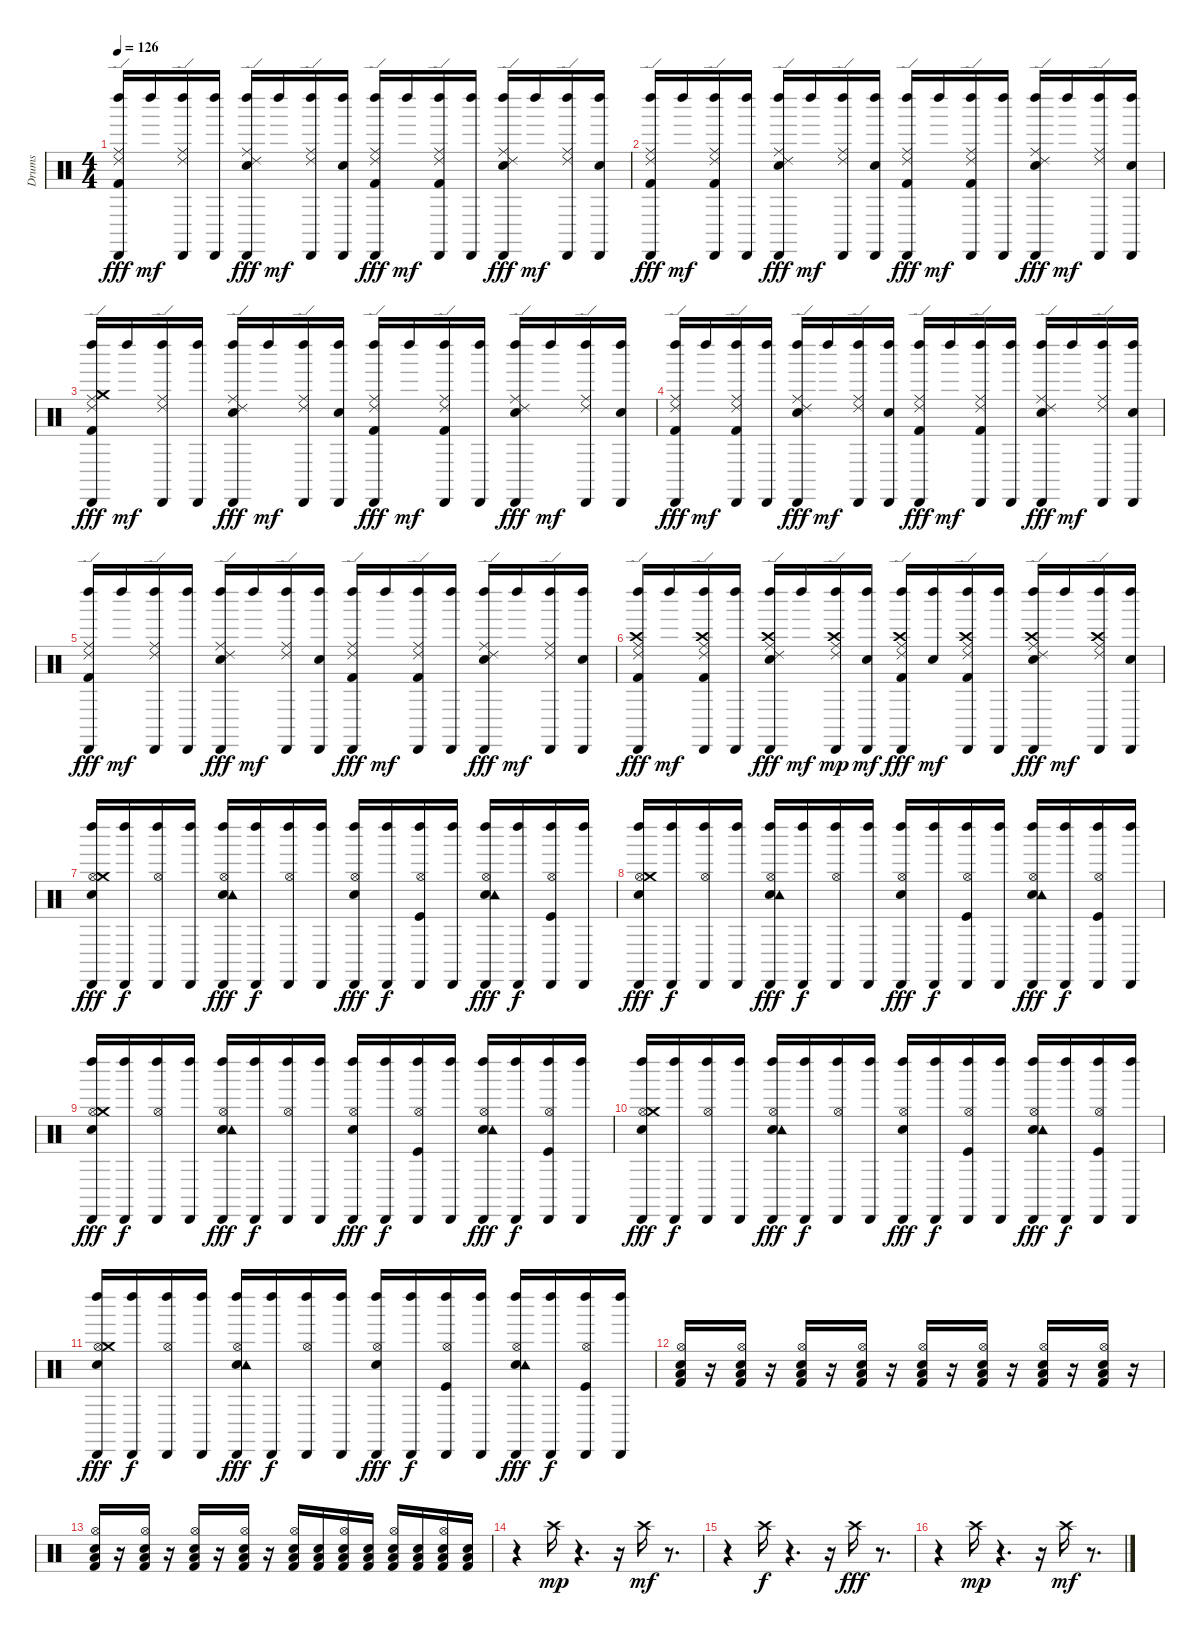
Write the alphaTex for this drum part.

\track ("Drums" "Drums") {instrument percussion}
\staff {score}
\articulation defaults
\ts (4 4)
\tempo 126
\clef neutral
\ks c
("Cabasa (hit)" "Kick (hit) 2" "Left Maraca (hit)" "Ride (middle)" "Ride (edge) 2").16{dy fff} "Left Maraca (hit)".16{dy mf} ("Cabasa (hit)" "Left Maraca (hit)" "Ride (edge) 2" "Ride (middle)").16 ("Cabasa (hit)" "Left Maraca (hit)").16 ("Left Maraca (hit)" "Ride (edge) 2" "Ride (middle)" "Cabasa (hit)" "Electric Snare (hit)").16{dy fff} "Left Maraca (hit)".16{dy mf} ("Ride (edge) 2" "Cabasa (hit)" "Left Maraca (hit)" "Ride (middle)").16 ("Electric Snare (hit)" "Cabasa (hit)" "Left Maraca (hit)").16 ("Kick (hit) 2" "Cabasa (hit)" "Ride (middle)" "Left Maraca (hit)" "Ride (edge) 2").16{dy fff} "Left Maraca (hit)".16{dy mf} ("Cabasa (hit)" "Ride (middle)" "Ride (edge) 2" "Left Maraca (hit)" "Kick (hit) 2").16 ("Left Maraca (hit)" "Cabasa (hit)").16 ("Ride (edge) 2" "Electric Snare (hit)" "Left Maraca (hit)" "Cabasa (hit)" "Ride (middle)").16{dy fff} "Left Maraca (hit)".16{dy mf} ("Left Maraca (hit)" "Cabasa (hit)" "Ride (middle)" "Ride (edge) 2").16 ("Left Maraca (hit)" "Cabasa (hit)" "Electric Snare (hit)").16 |
("Cabasa (hit)" "Kick (hit) 2" "Left Maraca (hit)" "Ride (middle)" "Ride (edge) 2").16{dy fff} "Left Maraca (hit)".16{dy mf} ("Kick (hit) 2" "Cabasa (hit)" "Left Maraca (hit)" "Ride (edge) 2" "Ride (middle)").16 ("Cabasa (hit)" "Left Maraca (hit)").16 ("Left Maraca (hit)" "Ride (edge) 2" "Ride (middle)" "Cabasa (hit)" "Electric Snare (hit)").16{dy fff} "Left Maraca (hit)".16{dy mf} ("Ride (edge) 2" "Cabasa (hit)" "Left Maraca (hit)" "Ride (middle)").16 ("Electric Snare (hit)" "Cabasa (hit)" "Left Maraca (hit)").16 ("Kick (hit) 2" "Cabasa (hit)" "Ride (middle)" "Left Maraca (hit)" "Ride (edge) 2").16{dy fff} "Left Maraca (hit)".16{dy mf} ("Cabasa (hit)" "Ride (middle)" "Ride (edge) 2" "Left Maraca (hit)" "Kick (hit) 2").16 ("Left Maraca (hit)" "Cabasa (hit)").16 ("Ride (edge) 2" "Electric Snare (hit)" "Left Maraca (hit)" "Cabasa (hit)" "Ride (middle)").16{dy fff} "Left Maraca (hit)".16{dy mf} ("Left Maraca (hit)" "Cabasa (hit)" "Ride (middle)" "Ride (edge) 2").16 ("Left Maraca (hit)" "Cabasa (hit)" "Electric Snare (hit)").16 |
("Crash medium (hit)" "Cabasa (hit)" "Kick (hit) 2" "Left Maraca (hit)" "Ride (middle)" "Ride (edge) 2").16{dy fff} "Left Maraca (hit)".16{dy mf} ("Cabasa (hit)" "Left Maraca (hit)" "Ride (edge) 2" "Ride (middle)").16 ("Cabasa (hit)" "Left Maraca (hit)").16 ("Left Maraca (hit)" "Ride (edge) 2" "Ride (middle)" "Cabasa (hit)" "Electric Snare (hit)").16{dy fff} "Left Maraca (hit)".16{dy mf} ("Ride (edge) 2" "Cabasa (hit)" "Left Maraca (hit)" "Ride (middle)").16 ("Electric Snare (hit)" "Cabasa (hit)" "Left Maraca (hit)").16 ("Kick (hit) 2" "Cabasa (hit)" "Ride (middle)" "Left Maraca (hit)" "Ride (edge) 2").16{dy fff} "Left Maraca (hit)".16{dy mf} ("Cabasa (hit)" "Ride (middle)" "Ride (edge) 2" "Left Maraca (hit)" "Kick (hit) 2").16 ("Left Maraca (hit)" "Cabasa (hit)").16 ("Ride (edge) 2" "Electric Snare (hit)" "Left Maraca (hit)" "Cabasa (hit)" "Ride (middle)").16{dy fff} "Left Maraca (hit)".16{dy mf} ("Left Maraca (hit)" "Cabasa (hit)" "Ride (middle)" "Ride (edge) 2").16 ("Left Maraca (hit)" "Cabasa (hit)" "Electric Snare (hit)").16 |
("Cabasa (hit)" "Kick (hit) 2" "Left Maraca (hit)" "Ride (middle)" "Ride (edge) 2").16{dy fff} "Left Maraca (hit)".16{dy mf} ("Kick (hit) 2" "Cabasa (hit)" "Left Maraca (hit)" "Ride (edge) 2" "Ride (middle)").16 ("Cabasa (hit)" "Left Maraca (hit)").16 ("Left Maraca (hit)" "Ride (edge) 2" "Ride (middle)" "Cabasa (hit)" "Electric Snare (hit)").16{dy fff} "Left Maraca (hit)".16{dy mf} ("Ride (edge) 2" "Cabasa (hit)" "Left Maraca (hit)" "Ride (middle)").16 ("Electric Snare (hit)" "Cabasa (hit)" "Left Maraca (hit)").16 ("Kick (hit) 2" "Cabasa (hit)" "Ride (middle)" "Left Maraca (hit)" "Ride (edge) 2").16{dy fff} "Left Maraca (hit)".16{dy mf} ("Cabasa (hit)" "Ride (middle)" "Ride (edge) 2" "Left Maraca (hit)" "Kick (hit) 2").16 ("Left Maraca (hit)" "Cabasa (hit)").16 ("Ride (edge) 2" "Electric Snare (hit)" "Left Maraca (hit)" "Cabasa (hit)" "Ride (middle)").16{dy fff} "Left Maraca (hit)".16{dy mf} ("Left Maraca (hit)" "Cabasa (hit)" "Ride (middle)" "Ride (edge) 2").16 ("Left Maraca (hit)" "Cabasa (hit)" "Electric Snare (hit)").16 |
("Cabasa (hit)" "Kick (hit) 2" "Left Maraca (hit)" "Ride (middle)" "Ride (edge) 2").16{dy fff} "Left Maraca (hit)".16{dy mf} ("Cabasa (hit)" "Left Maraca (hit)" "Ride (edge) 2" "Ride (middle)").16 ("Cabasa (hit)" "Left Maraca (hit)").16 ("Left Maraca (hit)" "Ride (edge) 2" "Ride (middle)" "Cabasa (hit)" "Electric Snare (hit)").16{dy fff} "Left Maraca (hit)".16{dy mf} ("Ride (edge) 2" "Cabasa (hit)" "Left Maraca (hit)" "Ride (middle)").16 ("Electric Snare (hit)" "Cabasa (hit)" "Left Maraca (hit)").16 ("Kick (hit) 2" "Cabasa (hit)" "Ride (middle)" "Left Maraca (hit)" "Ride (edge) 2").16{dy fff} "Left Maraca (hit)".16{dy mf} ("Cabasa (hit)" "Ride (middle)" "Ride (edge) 2" "Left Maraca (hit)" "Kick (hit) 2").16 ("Left Maraca (hit)" "Cabasa (hit)").16 ("Ride (edge) 2" "Electric Snare (hit)" "Left Maraca (hit)" "Cabasa (hit)" "Ride (middle)").16{dy fff} "Left Maraca (hit)".16{dy mf} ("Left Maraca (hit)" "Cabasa (hit)" "Ride (middle)" "Ride (edge) 2").16 ("Left Maraca (hit)" "Cabasa (hit)" "Electric Snare (hit)").16 |
("Crash high (hit)" "Cabasa (hit)" "Kick (hit) 2" "Left Maraca (hit)" "Ride (middle)" "Ride (edge) 2").16{dy fff} "Left Maraca (hit)".16{dy mf} ("Crash high (hit)" "Kick (hit) 2" "Cabasa (hit)" "Left Maraca (hit)" "Ride (edge) 2" "Ride (middle)").16 ("Cabasa (hit)" "Left Maraca (hit)").16 ("Crash high (hit)" "Left Maraca (hit)" "Ride (edge) 2" "Ride (middle)" "Cabasa (hit)" "Electric Snare (hit)").16{dy fff} "Left Maraca (hit)".16{dy mf} ("Ride (edge) 2" "Cabasa (hit)" "Left Maraca (hit)" "Ride (middle)" "Crash high (hit)").16{dy mp} ("Electric Snare (hit)" "Cabasa (hit)" "Left Maraca (hit)").16{dy mf} ("Crash high (hit)" "Kick (hit) 2" "Cabasa (hit)" "Ride (middle)" "Left Maraca (hit)" "Ride (edge) 2").16{dy fff} ("Electric Snare (hit)" "Left Maraca (hit)").16{dy mf} ("Crash high (hit)" "Cabasa (hit)" "Ride (middle)" "Ride (edge) 2" "Left Maraca (hit)" "Kick (hit) 2").16 ("Left Maraca (hit)" "Cabasa (hit)").16 ("Crash high (hit)" "Ride (edge) 2" "Electric Snare (hit)" "Left Maraca (hit)" "Cabasa (hit)" "Ride (middle)").16{dy fff} "Left Maraca (hit)".16{dy mf} ("Crash high (hit)" "Left Maraca (hit)" "Cabasa (hit)" "Ride (middle)" "Ride (edge) 2").16 ("Left Maraca (hit)" "Cabasa (hit)" "Electric Snare (hit)").16 |
("Electric Snare (hit)" "Left Maraca (hit)" "Hi-Hat (open)" "Crash medium (hit)" "Cabasa (hit)").16{dy fff} ("Cabasa (hit)" "Left Maraca (hit)").16{dy f} ("Left Maraca (hit)" "Hi-Hat (open)" "Cabasa (hit)").16 ("Left Maraca (hit)" "Cabasa (hit)").16 ("Electric Snare (hit)" "Tambourine (hit)" "Cabasa (hit)" "Hi-Hat (open)" "Left Maraca (hit)").16{dy fff} ("Left Maraca (hit)" "Cabasa (hit)").16{dy f} ("Left Maraca (hit)" "Cabasa (hit)" "Hi-Hat (open)").16 ("Left Maraca (hit)" "Cabasa (hit)").16 ("Electric Snare (hit)" "Cabasa (hit)" "Hi-Hat (open)" "Left Maraca (hit)").16{dy fff} ("Left Maraca (hit)" "Cabasa (hit)").16{dy f} ("Kick (hit)" "Left Maraca (hit)" "Cabasa (hit)" "Hi-Hat (open)").16 ("Left Maraca (hit)" "Cabasa (hit)").16 ("Electric Snare (hit)" "Left Maraca (hit)" "Hi-Hat (open)" "Cabasa (hit)" "Tambourine (hit)").16{dy fff} ("Left Maraca (hit)" "Cabasa (hit)").16{dy f} ("Kick (hit)" "Hi-Hat (open)" "Cabasa (hit)" "Left Maraca (hit)").16 ("Left Maraca (hit)" "Cabasa (hit)").16 |
("Electric Snare (hit)" "Left Maraca (hit)" "Hi-Hat (open)" "Crash medium (hit)" "Cabasa (hit)").16{dy fff} ("Cabasa (hit)" "Left Maraca (hit)").16{dy f} ("Left Maraca (hit)" "Hi-Hat (open)" "Cabasa (hit)").16 ("Left Maraca (hit)" "Cabasa (hit)").16 ("Electric Snare (hit)" "Tambourine (hit)" "Cabasa (hit)" "Hi-Hat (open)" "Left Maraca (hit)").16{dy fff} ("Left Maraca (hit)" "Cabasa (hit)").16{dy f} ("Left Maraca (hit)" "Cabasa (hit)" "Hi-Hat (open)").16 ("Left Maraca (hit)" "Cabasa (hit)").16 ("Electric Snare (hit)" "Cabasa (hit)" "Hi-Hat (open)" "Left Maraca (hit)").16{dy fff} ("Left Maraca (hit)" "Cabasa (hit)").16{dy f} ("Kick (hit)" "Left Maraca (hit)" "Cabasa (hit)" "Hi-Hat (open)").16 ("Left Maraca (hit)" "Cabasa (hit)").16 ("Electric Snare (hit)" "Left Maraca (hit)" "Hi-Hat (open)" "Cabasa (hit)" "Tambourine (hit)").16{dy fff} ("Left Maraca (hit)" "Cabasa (hit)").16{dy f} ("Kick (hit)" "Hi-Hat (open)" "Cabasa (hit)" "Left Maraca (hit)").16 ("Left Maraca (hit)" "Cabasa (hit)").16 |
("Electric Snare (hit)" "Left Maraca (hit)" "Hi-Hat (open)" "Crash medium (hit)" "Cabasa (hit)").16{dy fff} ("Cabasa (hit)" "Left Maraca (hit)").16{dy f} ("Left Maraca (hit)" "Hi-Hat (open)" "Cabasa (hit)").16 ("Left Maraca (hit)" "Cabasa (hit)").16 ("Electric Snare (hit)" "Tambourine (hit)" "Cabasa (hit)" "Hi-Hat (open)" "Left Maraca (hit)").16{dy fff} ("Left Maraca (hit)" "Cabasa (hit)").16{dy f} ("Left Maraca (hit)" "Cabasa (hit)" "Hi-Hat (open)").16 ("Left Maraca (hit)" "Cabasa (hit)").16 ("Electric Snare (hit)" "Cabasa (hit)" "Hi-Hat (open)" "Left Maraca (hit)").16{dy fff} ("Left Maraca (hit)" "Cabasa (hit)").16{dy f} ("Kick (hit)" "Left Maraca (hit)" "Cabasa (hit)" "Hi-Hat (open)").16 ("Left Maraca (hit)" "Cabasa (hit)").16 ("Electric Snare (hit)" "Left Maraca (hit)" "Hi-Hat (open)" "Cabasa (hit)" "Tambourine (hit)").16{dy fff} ("Left Maraca (hit)" "Cabasa (hit)").16{dy f} ("Kick (hit)" "Hi-Hat (open)" "Cabasa (hit)" "Left Maraca (hit)").16 ("Left Maraca (hit)" "Cabasa (hit)").16 |
("Electric Snare (hit)" "Left Maraca (hit)" "Hi-Hat (open)" "Crash medium (hit)" "Cabasa (hit)").16{dy fff} ("Cabasa (hit)" "Left Maraca (hit)").16{dy f} ("Left Maraca (hit)" "Hi-Hat (open)" "Cabasa (hit)").16 ("Left Maraca (hit)" "Cabasa (hit)").16 ("Electric Snare (hit)" "Tambourine (hit)" "Cabasa (hit)" "Hi-Hat (open)" "Left Maraca (hit)").16{dy fff} ("Left Maraca (hit)" "Cabasa (hit)").16{dy f} ("Left Maraca (hit)" "Cabasa (hit)" "Hi-Hat (open)").16 ("Left Maraca (hit)" "Cabasa (hit)").16 ("Electric Snare (hit)" "Cabasa (hit)" "Hi-Hat (open)" "Left Maraca (hit)").16{dy fff} ("Left Maraca (hit)" "Cabasa (hit)").16{dy f} ("Kick (hit)" "Left Maraca (hit)" "Cabasa (hit)" "Hi-Hat (open)").16 ("Left Maraca (hit)" "Cabasa (hit)").16 ("Electric Snare (hit)" "Left Maraca (hit)" "Hi-Hat (open)" "Cabasa (hit)" "Tambourine (hit)").16{dy fff} ("Left Maraca (hit)" "Cabasa (hit)").16{dy f} ("Kick (hit)" "Hi-Hat (open)" "Cabasa (hit)" "Left Maraca (hit)").16 ("Left Maraca (hit)" "Cabasa (hit)").16 |
("Electric Snare (hit)" "Left Maraca (hit)" "Hi-Hat (open)" "Crash medium (hit)" "Cabasa (hit)").16{dy fff} ("Cabasa (hit)" "Left Maraca (hit)").16{dy f} ("Left Maraca (hit)" "Hi-Hat (open)" "Cabasa (hit)").16 ("Left Maraca (hit)" "Cabasa (hit)").16 ("Electric Snare (hit)" "Tambourine (hit)" "Cabasa (hit)" "Hi-Hat (open)" "Left Maraca (hit)").16{dy fff} ("Left Maraca (hit)" "Cabasa (hit)").16{dy f} ("Left Maraca (hit)" "Cabasa (hit)" "Hi-Hat (open)").16 ("Left Maraca (hit)" "Cabasa (hit)").16 ("Electric Snare (hit)" "Cabasa (hit)" "Hi-Hat (open)" "Left Maraca (hit)").16{dy fff} ("Left Maraca (hit)" "Cabasa (hit)").16{dy f} ("Kick (hit)" "Left Maraca (hit)" "Cabasa (hit)" "Hi-Hat (open)").16 ("Left Maraca (hit)" "Cabasa (hit)").16 ("Electric Snare (hit)" "Left Maraca (hit)" "Hi-Hat (open)" "Cabasa (hit)" "Tambourine (hit)").16{dy fff} ("Left Maraca (hit)" "Cabasa (hit)").16{dy f} ("Kick (hit)" "Hi-Hat (open)" "Cabasa (hit)" "Left Maraca (hit)").16 ("Left Maraca (hit)" "Cabasa (hit)").16 |
("Electric Snare (hit)" "Kick (hit) 2" "Hi-Hat (open)" "Low Tom (hit)").16 r.16 ("Kick (hit) 2" "Hi-Hat (open)" "Electric Snare (hit)" "Low Tom (hit)").16{volume 8} r.16 ("Electric Snare (hit)" "Kick (hit) 2" "Low Tom (hit)" "Hi-Hat (open)").16{volume 8} r.16 ("Hi-Hat (open)" "Kick (hit) 2" "Low Tom (hit)" "Electric Snare (hit)").16{volume 8} r.16 ("Hi-Hat (open)" "Low Tom (hit)" "Electric Snare (hit)" "Kick (hit) 2").16{volume 9} r.16 ("Low Tom (hit)" "Electric Snare (hit)" "Kick (hit) 2" "Hi-Hat (open)").16{volume 9} r.16 ("Kick (hit) 2" "Hi-Hat (open)" "Low Tom (hit)" "Electric Snare (hit)").16{volume 9} r.16 ("Electric Snare (hit)" "Kick (hit) 2" "Hi-Hat (open)" "Low Tom (hit)").16{volume 10} r.16 |
("Electric Snare (hit)" "Kick (hit) 2" "Hi-Hat (open)" "Low Tom (hit)").16{volume 10} r.16 ("Kick (hit) 2" "Hi-Hat (open)" "Electric Snare (hit)" "Low Tom (hit)").16{volume 10} r.16 ("Electric Snare (hit)" "Kick (hit) 2" "Low Tom (hit)" "Hi-Hat (open)").16{volume 11} r.16 ("Hi-Hat (open)" "Kick (hit) 2" "Low Tom (hit)" "Electric Snare (hit)").16{volume 11} r.16 ("Hi-Hat (open)" "Low Tom (hit)" "Electric Snare (hit)" "Kick (hit) 2").16{volume 11} ("Low Tom (hit)" "Kick (hit) 2" "Electric Snare (hit)").16{volume 11} ("Low Tom (hit)" "Electric Snare (hit)" "Kick (hit) 2" "Hi-Hat (open)").16{volume 12} ("Low Tom (hit)" "Kick (hit) 2" "Electric Snare (hit)").16{volume 12} ("Kick (hit) 2" "Hi-Hat (open)" "Low Tom (hit)" "Electric Snare (hit)").16{volume 12} ("Low Tom (hit)" "Kick (hit) 2" "Electric Snare (hit)").16{volume 12} ("Electric Snare (hit)" "Kick (hit) 2" "Hi-Hat (open)" "Low Tom (hit)").16{volume 12} ("Low Tom (hit)" "Kick (hit) 2" "Electric Snare (hit)").16{volume 12} |
r.4 "Crash high (hit)".16{dy mp volume 12} r.4{d} r.16 "Crash high (hit)".16{dy mf} r.8{d} |
r.4 "Crash high (hit)".16{dy f} r.4{d} r.16 "Crash high (hit)".16{dy fff} r.8{d} |
r.4 "Crash high (hit)".16{dy mp} r.4{d} r.16 "Crash high (hit)".16{dy mf} r.8{d}
